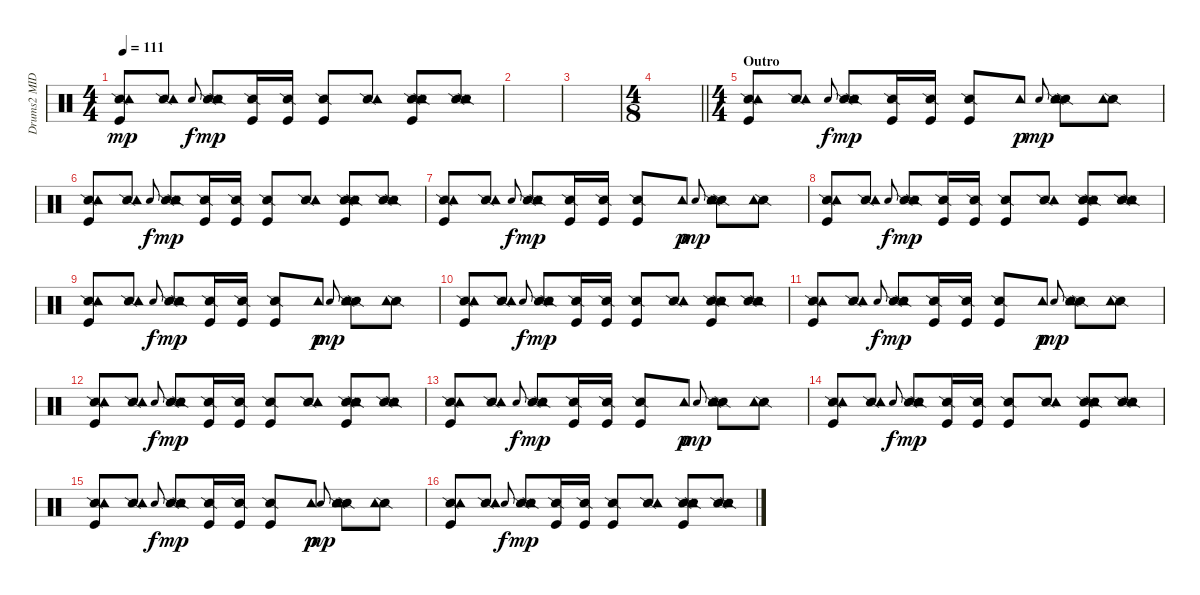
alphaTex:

\track ("Drums2 MIDI" "Drums2 MID") {instrument percussion}
\staff {score}
\articulation defaults
\ts (4 4)
\tempo 111
\clef neutral
\ks c
("Snare (side stick) 2" "Tambourine (hit)" "Kick (hit)").8{dy mp} ("Snare (side stick) 2" "Tambourine (hit)").8 "Snare (hit)".8{gr onbeat dy f} ("Snare (side stick) 2" "Tambourine (hit)" "Snare (side stick) 2").8{dy mp} ("Snare (side stick) 2" "Kick (hit)").16 ("Snare (side stick) 2" "Kick (hit)").16 ("Snare (side stick) 2" "Kick (hit)").8 ("Snare (side stick) 2" "Tambourine (hit)").8 ("Snare (side stick) 2" "Tambourine (hit)" "Kick (hit)" "Snare (side stick) 2").8 ("Snare (side stick) 2" "Tambourine (hit)" "Snare (side stick) 2").8 |
|
|
\ts (4 8)
\barLineRight lightlight
|
\ts (4 4)
\section ("" "Outro")
("Snare (side stick) 2" "Tambourine (hit)" "Kick (hit)").8 ("Snare (side stick) 2" "Tambourine (hit)").8 "Snare (hit)".8{gr onbeat dy f} ("Snare (side stick) 2" "Tambourine (hit)" "Snare (side stick) 2").8{dy mp} ("Snare (side stick) 2" "Kick (hit)").16 ("Snare (side stick) 2" "Kick (hit)").16 ("Snare (side stick) 2" "Kick (hit)").8 "Tambourine (hit)".8{dy p} "Snare (hit)".8{gr onbeat dy mp} ("Snare (side stick) 2" "Tambourine (hit)" "Snare (side stick) 2").8 ("Snare (side stick) 2" "Tambourine (hit)").8 |
("Snare (side stick) 2" "Tambourine (hit)" "Kick (hit)").8 ("Snare (side stick) 2" "Tambourine (hit)").8 "Snare (hit)".8{gr onbeat dy f} ("Snare (side stick) 2" "Tambourine (hit)" "Snare (side stick) 2").8{dy mp} ("Snare (side stick) 2" "Kick (hit)").16 ("Snare (side stick) 2" "Kick (hit)").16 ("Snare (side stick) 2" "Kick (hit)").8 ("Snare (side stick) 2" "Tambourine (hit)").8 ("Snare (side stick) 2" "Tambourine (hit)" "Kick (hit)" "Snare (side stick) 2").8 ("Snare (side stick) 2" "Tambourine (hit)" "Snare (side stick) 2").8 |
("Snare (side stick) 2" "Tambourine (hit)" "Kick (hit)").8 ("Snare (side stick) 2" "Tambourine (hit)").8 "Snare (hit)".8{gr onbeat dy f} ("Snare (side stick) 2" "Tambourine (hit)" "Snare (side stick) 2").8{dy mp} ("Snare (side stick) 2" "Kick (hit)").16 ("Snare (side stick) 2" "Kick (hit)").16 ("Snare (side stick) 2" "Kick (hit)").8 "Tambourine (hit)".8{dy p} "Snare (hit)".8{gr onbeat dy mp} ("Snare (side stick) 2" "Tambourine (hit)" "Snare (side stick) 2").8 ("Snare (side stick) 2" "Tambourine (hit)").8 |
("Snare (side stick) 2" "Tambourine (hit)" "Kick (hit)").8 ("Snare (side stick) 2" "Tambourine (hit)").8 "Snare (hit)".8{gr onbeat dy f} ("Snare (side stick) 2" "Tambourine (hit)" "Snare (side stick) 2").8{dy mp} ("Snare (side stick) 2" "Kick (hit)").16 ("Snare (side stick) 2" "Kick (hit)").16 ("Snare (side stick) 2" "Kick (hit)").8 ("Snare (side stick) 2" "Tambourine (hit)").8 ("Snare (side stick) 2" "Tambourine (hit)" "Kick (hit)" "Snare (side stick) 2").8 ("Snare (side stick) 2" "Tambourine (hit)" "Snare (side stick) 2").8 |
("Snare (side stick) 2" "Tambourine (hit)" "Kick (hit)").8 ("Snare (side stick) 2" "Tambourine (hit)").8 "Snare (hit)".8{gr onbeat dy f} ("Snare (side stick) 2" "Tambourine (hit)" "Snare (side stick) 2").8{dy mp} ("Snare (side stick) 2" "Kick (hit)").16 ("Snare (side stick) 2" "Kick (hit)").16 ("Snare (side stick) 2" "Kick (hit)").8 "Tambourine (hit)".8{dy p} "Snare (hit)".8{gr onbeat dy mp} ("Snare (side stick) 2" "Tambourine (hit)" "Snare (side stick) 2").8 ("Snare (side stick) 2" "Tambourine (hit)").8 |
("Snare (side stick) 2" "Tambourine (hit)" "Kick (hit)").8 ("Snare (side stick) 2" "Tambourine (hit)").8 "Snare (hit)".8{gr onbeat dy f} ("Snare (side stick) 2" "Tambourine (hit)" "Snare (side stick) 2").8{dy mp} ("Snare (side stick) 2" "Kick (hit)").16 ("Snare (side stick) 2" "Kick (hit)").16 ("Snare (side stick) 2" "Kick (hit)").8 ("Snare (side stick) 2" "Tambourine (hit)").8 ("Snare (side stick) 2" "Tambourine (hit)" "Kick (hit)" "Snare (side stick) 2").8 ("Snare (side stick) 2" "Tambourine (hit)" "Snare (side stick) 2").8 |
("Snare (side stick) 2" "Tambourine (hit)" "Kick (hit)").8 ("Snare (side stick) 2" "Tambourine (hit)").8 "Snare (hit)".8{gr onbeat dy f} ("Snare (side stick) 2" "Tambourine (hit)" "Snare (side stick) 2").8{dy mp} ("Snare (side stick) 2" "Kick (hit)").16 ("Snare (side stick) 2" "Kick (hit)").16 ("Snare (side stick) 2" "Kick (hit)").8 "Tambourine (hit)".8{dy p} "Snare (hit)".8{gr onbeat dy mp} ("Snare (side stick) 2" "Tambourine (hit)" "Snare (side stick) 2").8 ("Snare (side stick) 2" "Tambourine (hit)").8 |
("Snare (side stick) 2" "Tambourine (hit)" "Kick (hit)").8 ("Snare (side stick) 2" "Tambourine (hit)").8 "Snare (hit)".8{gr onbeat dy f} ("Snare (side stick) 2" "Tambourine (hit)" "Snare (side stick) 2").8{dy mp} ("Snare (side stick) 2" "Kick (hit)").16 ("Snare (side stick) 2" "Kick (hit)").16 ("Snare (side stick) 2" "Kick (hit)").8 ("Snare (side stick) 2" "Tambourine (hit)").8 ("Snare (side stick) 2" "Tambourine (hit)" "Kick (hit)" "Snare (side stick) 2").8 ("Snare (side stick) 2" "Tambourine (hit)" "Snare (side stick) 2").8 |
("Snare (side stick) 2" "Tambourine (hit)" "Kick (hit)").8 ("Snare (side stick) 2" "Tambourine (hit)").8 "Snare (hit)".8{gr onbeat dy f} ("Snare (side stick) 2" "Tambourine (hit)" "Snare (side stick) 2").8{dy mp} ("Snare (side stick) 2" "Kick (hit)").16 ("Snare (side stick) 2" "Kick (hit)").16 ("Snare (side stick) 2" "Kick (hit)").8 "Tambourine (hit)".8{dy p} "Snare (hit)".8{gr onbeat dy mp} ("Snare (side stick) 2" "Tambourine (hit)" "Snare (side stick) 2").8 ("Snare (side stick) 2" "Tambourine (hit)").8 |
("Snare (side stick) 2" "Tambourine (hit)" "Kick (hit)").8 ("Snare (side stick) 2" "Tambourine (hit)").8 "Snare (hit)".8{gr onbeat dy f} ("Snare (side stick) 2" "Tambourine (hit)" "Snare (side stick) 2").8{dy mp} ("Snare (side stick) 2" "Kick (hit)").16 ("Snare (side stick) 2" "Kick (hit)").16 ("Snare (side stick) 2" "Kick (hit)").8 ("Snare (side stick) 2" "Tambourine (hit)").8 ("Snare (side stick) 2" "Tambourine (hit)" "Kick (hit)" "Snare (side stick) 2").8 ("Snare (side stick) 2" "Tambourine (hit)" "Snare (side stick) 2").8 |
("Snare (side stick) 2" "Tambourine (hit)" "Kick (hit)").8 ("Snare (side stick) 2" "Tambourine (hit)").8 "Snare (hit)".8{gr onbeat dy f} ("Snare (side stick) 2" "Tambourine (hit)" "Snare (side stick) 2").8{dy mp} ("Snare (side stick) 2" "Kick (hit)").16 ("Snare (side stick) 2" "Kick (hit)").16 ("Snare (side stick) 2" "Kick (hit)").8 "Tambourine (hit)".8{dy p} "Snare (hit)".8{gr onbeat dy mp} ("Snare (side stick) 2" "Tambourine (hit)" "Snare (side stick) 2").8 ("Snare (side stick) 2" "Tambourine (hit)").8 |
("Snare (side stick) 2" "Tambourine (hit)" "Kick (hit)").8 ("Snare (side stick) 2" "Tambourine (hit)").8 "Snare (hit)".8{gr onbeat dy f} ("Snare (side stick) 2" "Tambourine (hit)" "Snare (side stick) 2").8{dy mp} ("Snare (side stick) 2" "Kick (hit)").16 ("Snare (side stick) 2" "Kick (hit)").16 ("Snare (side stick) 2" "Kick (hit)").8 ("Snare (side stick) 2" "Tambourine (hit)").8 ("Snare (side stick) 2" "Tambourine (hit)" "Kick (hit)" "Snare (side stick) 2").8 ("Snare (side stick) 2" "Tambourine (hit)" "Snare (side stick) 2").8
